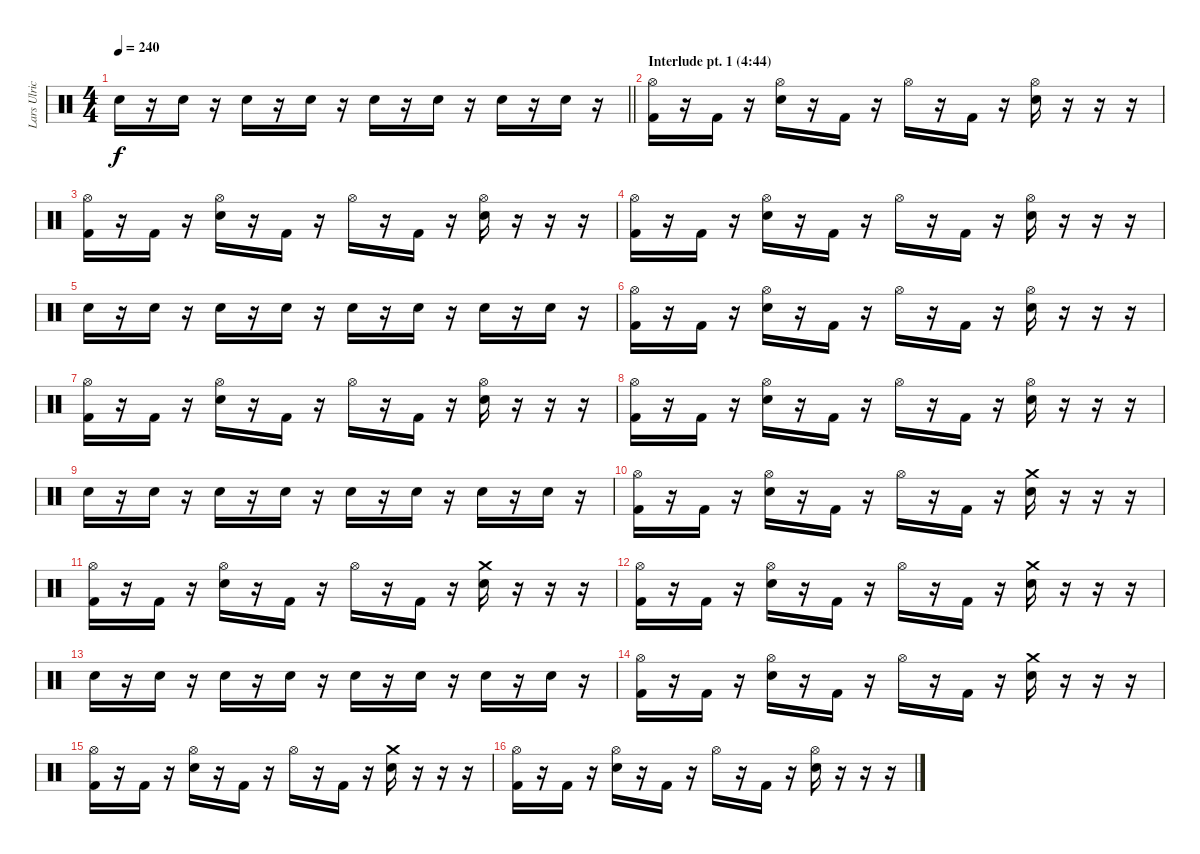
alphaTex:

\track ("Lars Ulrich" "Lars Ulric") {instrument percussion}
\staff {score}
\articulation defaults
\ts (4 4)
\tempo 240
\clef neutral
\barLineRight lightlight
\ks c "Electric Snare (hit)".16{dy f}
r.16 "Electric Snare (hit)".16 r.16 "Electric Snare (hit)".16 r.16 "Electric Snare (hit)".16 r.16 "Electric Snare (hit)".16 r.16 "Electric Snare (hit)".16 r.16 "Electric Snare (hit)".16 r.16 "Electric Snare (hit)".16 r.16 |
\section ("" "Interlude pt. 1 (4:44)")
("Hi-Hat (open)" "Kick (hit) 2").16 r.16 "Kick (hit) 2".16 r.16 ("Electric Snare (hit)" "Hi-Hat (open)").16 r.16 "Kick (hit) 2".16 r.16 "Hi-Hat (open)".16 r.16 "Kick (hit) 2".16 r.16 ("Electric Snare (hit)" "Hi-Hat (open)").16 r.16 r.16 r.16 |
("Hi-Hat (open)" "Kick (hit) 2").16 r.16 "Kick (hit) 2".16 r.16 ("Electric Snare (hit)" "Hi-Hat (open)").16 r.16 "Kick (hit) 2".16 r.16 "Hi-Hat (open)".16 r.16 "Kick (hit) 2".16 r.16 ("Electric Snare (hit)" "Hi-Hat (open)").16 r.16 r.16 r.16 |
("Hi-Hat (open)" "Kick (hit) 2").16 r.16 "Kick (hit) 2".16 r.16 ("Electric Snare (hit)" "Hi-Hat (open)").16 r.16 "Kick (hit) 2".16 r.16 "Hi-Hat (open)".16 r.16 "Kick (hit) 2".16 r.16 ("Electric Snare (hit)" "Hi-Hat (open)").16 r.16 r.16 r.16 |
"Electric Snare (hit)".16 r.16 "Electric Snare (hit)".16 r.16 "Electric Snare (hit)".16 r.16 "Electric Snare (hit)".16 r.16 "Electric Snare (hit)".16 r.16 "Electric Snare (hit)".16 r.16 "Electric Snare (hit)".16 r.16 "Electric Snare (hit)".16 r.16 |
("Hi-Hat (open)" "Kick (hit) 2").16 r.16 "Kick (hit) 2".16 r.16 ("Electric Snare (hit)" "Hi-Hat (open)").16 r.16 "Kick (hit) 2".16 r.16 "Hi-Hat (open)".16 r.16 "Kick (hit) 2".16 r.16 ("Electric Snare (hit)" "Hi-Hat (open)").16 r.16 r.16 r.16 |
("Hi-Hat (open)" "Kick (hit) 2").16 r.16 "Kick (hit) 2".16 r.16 ("Electric Snare (hit)" "Hi-Hat (open)").16 r.16 "Kick (hit) 2".16 r.16 "Hi-Hat (open)".16 r.16 "Kick (hit) 2".16 r.16 ("Electric Snare (hit)" "Hi-Hat (open)").16 r.16 r.16 r.16 |
("Hi-Hat (open)" "Kick (hit) 2").16 r.16 "Kick (hit) 2".16 r.16 ("Electric Snare (hit)" "Hi-Hat (open)").16 r.16 "Kick (hit) 2".16 r.16 "Hi-Hat (open)".16 r.16 "Kick (hit) 2".16 r.16 ("Electric Snare (hit)" "Hi-Hat (open)").16 r.16 r.16 r.16 |
"Electric Snare (hit)".16 r.16 "Electric Snare (hit)".16 r.16 "Electric Snare (hit)".16 r.16 "Electric Snare (hit)".16 r.16 "Electric Snare (hit)".16 r.16 "Electric Snare (hit)".16 r.16 "Electric Snare (hit)".16 r.16 "Electric Snare (hit)".16 r.16 |
("Hi-Hat (open)" "Kick (hit) 2").16 r.16 "Kick (hit) 2".16 r.16 ("Electric Snare (hit)" "Hi-Hat (open)").16 r.16 "Kick (hit) 2".16 r.16 "Hi-Hat (open)".16 r.16 "Kick (hit) 2".16 r.16 ("Electric Snare (hit)" "Crash medium (hit)").16 r.16 r.16 r.16 |
("Hi-Hat (open)" "Kick (hit) 2").16 r.16 "Kick (hit) 2".16 r.16 ("Electric Snare (hit)" "Hi-Hat (open)").16 r.16 "Kick (hit) 2".16 r.16 "Hi-Hat (open)".16 r.16 "Kick (hit) 2".16 r.16 ("Electric Snare (hit)" "Crash medium (hit)").16 r.16 r.16 r.16 |
("Hi-Hat (open)" "Kick (hit) 2").16 r.16 "Kick (hit) 2".16 r.16 ("Electric Snare (hit)" "Hi-Hat (open)").16 r.16 "Kick (hit) 2".16 r.16 "Hi-Hat (open)".16 r.16 "Kick (hit) 2".16 r.16 ("Electric Snare (hit)" "Crash medium (hit)").16 r.16 r.16 r.16 |
"Electric Snare (hit)".16 r.16 "Electric Snare (hit)".16 r.16 "Electric Snare (hit)".16 r.16 "Electric Snare (hit)".16 r.16 "Electric Snare (hit)".16 r.16 "Electric Snare (hit)".16 r.16 "Electric Snare (hit)".16 r.16 "Electric Snare (hit)".16 r.16 |
("Hi-Hat (open)" "Kick (hit) 2").16 r.16 "Kick (hit) 2".16 r.16 ("Electric Snare (hit)" "Hi-Hat (open)").16 r.16 "Kick (hit) 2".16 r.16 "Hi-Hat (open)".16 r.16 "Kick (hit) 2".16 r.16 ("Electric Snare (hit)" "Crash medium (hit)").16 r.16 r.16 r.16 |
("Hi-Hat (open)" "Kick (hit) 2").16 r.16 "Kick (hit) 2".16 r.16 ("Electric Snare (hit)" "Hi-Hat (open)").16 r.16 "Kick (hit) 2".16 r.16 "Hi-Hat (open)".16 r.16 "Kick (hit) 2".16 r.16 ("Electric Snare (hit)" "Crash medium (hit)").16 r.16 r.16 r.16 |
("Hi-Hat (open)" "Kick (hit) 2").16 r.16 "Kick (hit) 2".16 r.16 ("Electric Snare (hit)" "Hi-Hat (open)").16 r.16 "Kick (hit) 2".16 r.16 "Hi-Hat (open)".16 r.16 "Kick (hit) 2".16 r.16 ("Electric Snare (hit)" "Hi-Hat (open)").16 r.16 r.16 r.16
